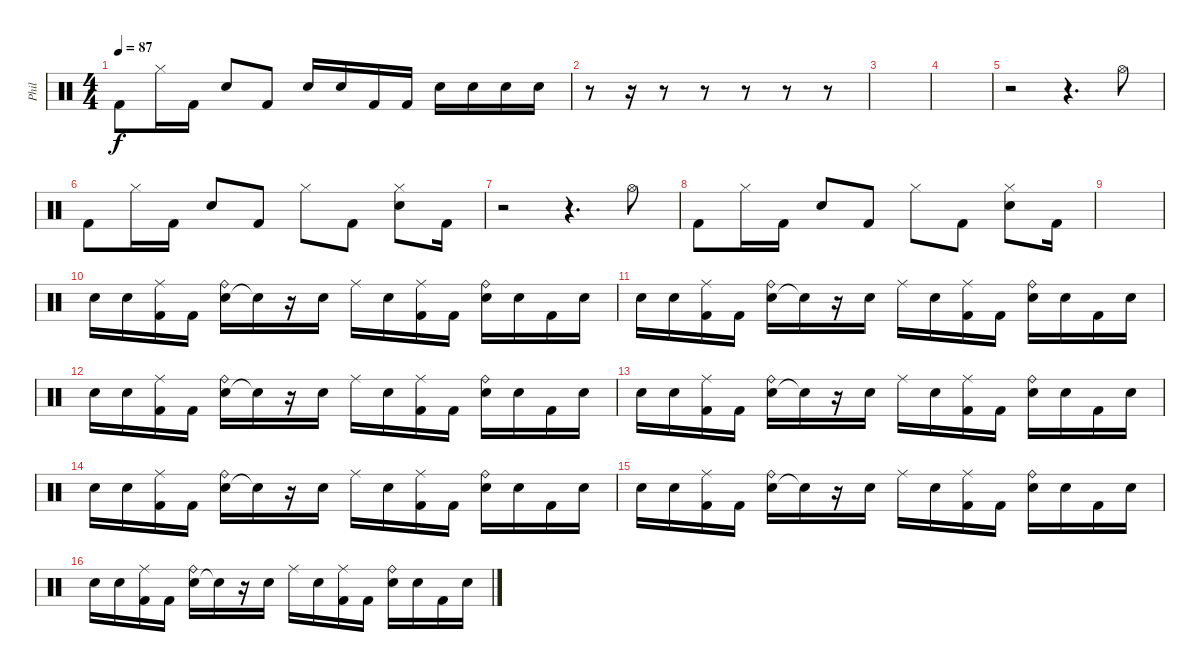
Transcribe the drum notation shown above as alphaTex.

\track ("Phil" "Phil") {instrument percussion}
\staff {score}
\articulation defaults
\ts (4 4)
\tempo 87
\clef neutral
\ks c "Kick (hit) 2".8{dy f} "Hi-Hat (closed)".16 "Kick (hit) 2".16 "Snare (hit) 2".8 "Kick (hit) 2".8 "Snare (hit) 2".16 "Snare (hit) 2".16 "Kick (hit) 2".16 "Kick (hit) 2".16 "Snare (hit) 2".16 "Snare (hit) 2".16 "Snare (hit) 2".16 "Snare (hit) 2".16
|
r.8 r.16 r.8 r.8 r.8 r.8 r.8 |
|
|
r.2 r.4{d} "Hi-Hat (open)".8 |
"Kick (hit) 2".8 "Hi-Hat (closed)".16 "Kick (hit) 2".16 "Snare (hit) 2".8 "Kick (hit) 2".8 "Hi-Hat (closed)".8 "Kick (hit) 2".8 ("Snare (hit) 2" "Hi-Hat (closed)").8 "Kick (hit) 2".16 |
r.2 r.4{d} "Hi-Hat (open)".8 |
"Kick (hit) 2".8 "Hi-Hat (closed)".16 "Kick (hit) 2".16 "Snare (hit) 2".8 "Kick (hit) 2".8 "Hi-Hat (closed)".8 "Kick (hit) 2".8 ("Snare (hit) 2" "Hi-Hat (closed)").8 "Kick (hit) 2".16 |
|
"Snare (hit) 2".16 "Snare (hit) 2".16 ("Ride (middle)" "Kick (hit) 2").16 "Kick (hit) 2".16 ("Snare (hit) 2" "Ride (bell)").16 "Snare (hit)"{t}.16 r.16 "Snare (hit) 2".16 "Ride (middle)".16 "Snare (hit) 2".16 ("Ride (middle)" "Kick (hit) 2").16 "Kick (hit) 2".16 ("Snare (hit) 2" "Ride (bell)").16 "Snare (hit) 2".16 "Kick (hit) 2".16 "Snare (hit) 2".16 |
"Snare (hit) 2".16 "Snare (hit) 2".16 ("Ride (middle)" "Kick (hit) 2").16 "Kick (hit) 2".16 ("Snare (hit) 2" "Ride (bell)").16 "Snare (hit)"{t}.16 r.16 "Snare (hit) 2".16 "Ride (middle)".16 "Snare (hit) 2".16 ("Ride (middle)" "Kick (hit) 2").16 "Kick (hit) 2".16 ("Snare (hit) 2" "Ride (bell)").16 "Snare (hit) 2".16 "Kick (hit) 2".16 "Snare (hit) 2".16 |
"Snare (hit) 2".16 "Snare (hit) 2".16 ("Ride (middle)" "Kick (hit) 2").16 "Kick (hit) 2".16 ("Snare (hit) 2" "Ride (bell)").16 "Snare (hit)"{t}.16 r.16 "Snare (hit) 2".16 "Ride (middle)".16 "Snare (hit) 2".16 ("Ride (middle)" "Kick (hit) 2").16 "Kick (hit) 2".16 ("Snare (hit) 2" "Ride (bell)").16 "Snare (hit) 2".16 "Kick (hit) 2".16 "Snare (hit) 2".16 |
"Snare (hit) 2".16 "Snare (hit) 2".16 ("Ride (middle)" "Kick (hit) 2").16 "Kick (hit) 2".16 ("Snare (hit) 2" "Ride (bell)").16 "Snare (hit)"{t}.16 r.16 "Snare (hit) 2".16 "Ride (middle)".16 "Snare (hit) 2".16 ("Ride (middle)" "Kick (hit) 2").16 "Kick (hit) 2".16 ("Snare (hit) 2" "Ride (bell)").16 "Snare (hit) 2".16 "Kick (hit) 2".16 "Snare (hit) 2".16 |
"Snare (hit) 2".16 "Snare (hit) 2".16 ("Ride (middle)" "Kick (hit) 2").16 "Kick (hit) 2".16 ("Snare (hit) 2" "Ride (bell)").16 "Snare (hit)"{t}.16 r.16 "Snare (hit) 2".16 "Ride (middle)".16 "Snare (hit) 2".16 ("Ride (middle)" "Kick (hit) 2").16 "Kick (hit) 2".16 ("Snare (hit) 2" "Ride (bell)").16 "Snare (hit) 2".16 "Kick (hit) 2".16 "Snare (hit) 2".16 |
"Snare (hit) 2".16 "Snare (hit) 2".16 ("Ride (middle)" "Kick (hit) 2").16 "Kick (hit) 2".16 ("Snare (hit) 2" "Ride (bell)").16 "Snare (hit)"{t}.16 r.16 "Snare (hit) 2".16 "Ride (middle)".16 "Snare (hit) 2".16 ("Ride (middle)" "Kick (hit) 2").16 "Kick (hit) 2".16 ("Snare (hit) 2" "Ride (bell)").16 "Snare (hit) 2".16 "Kick (hit) 2".16 "Snare (hit) 2".16 |
"Snare (hit) 2".16 "Snare (hit) 2".16 ("Ride (middle)" "Kick (hit) 2").16 "Kick (hit) 2".16 ("Snare (hit) 2" "Ride (bell)").16 "Snare (hit)"{t}.16 r.16 "Snare (hit) 2".16 "Ride (middle)".16 "Snare (hit) 2".16 ("Ride (middle)" "Kick (hit) 2").16 "Kick (hit) 2".16 ("Snare (hit) 2" "Ride (bell)").16 "Snare (hit) 2".16 "Kick (hit) 2".16 "Snare (hit) 2".16
